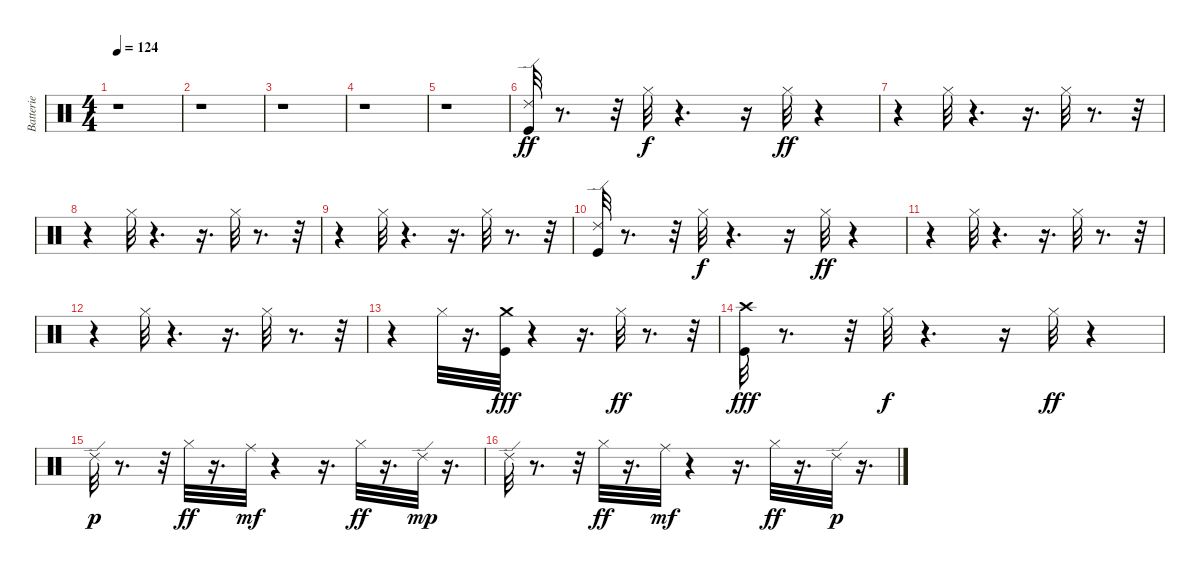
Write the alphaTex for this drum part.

\track ("Batterie" "Batterie") {instrument percussion}
\staff {score}
\articulation defaults
\ts (4 4)
\tempo 124
\clef neutral
\ks c
r.1{dy ff} |
r.1 |
r.1 |
r.1 |
r.1 |
("Ride (edge) 2" "Kick (hit)").32 r.8{d} r.32 "Hi-Hat (closed)".32{dy f} r.4{d} r.16 "Hi-Hat (closed)".32{dy ff} r.4 |
r.4 "Hi-Hat (closed)".32 r.4{d} r.16{d} "Hi-Hat (closed)".32 r.8{d} r.32 |
r.4 "Hi-Hat (closed)".32 r.4{d} r.16{d} "Hi-Hat (closed)".32 r.8{d} r.32 |
r.4 "Hi-Hat (closed)".32 r.4{d} r.16{d} "Hi-Hat (closed)".32 r.8{d} r.32 |
("Ride (edge) 2" "Kick (hit)").32 r.8{d} r.32 "Hi-Hat (closed)".32{dy f} r.4{d} r.16 "Hi-Hat (closed)".32{dy ff} r.4 |
r.4 "Hi-Hat (closed)".32 r.4{d} r.16{d} "Hi-Hat (closed)".32 r.8{d} r.32 |
r.4 "Hi-Hat (closed)".32 r.4{d} r.16{d} "Hi-Hat (closed)".32 r.8{d} r.32 |
r.4 "Hi-Hat (closed)".32 r.16{d} ("Crash medium (hit)" "Kick (hit)").32{dy fff} r.4 r.16{d} "Hi-Hat (closed)".32{dy ff} r.8{d} r.32 |
("Kick (hit)" "Crash high (hit)").32{dy fff} r.8{d} r.32 "Hi-Hat (closed)".32{dy f} r.4{d} r.16 "Hi-Hat (closed)".32{dy ff} r.4 |
"Ride (edge) 2".32{dy p} r.8{d} r.32 "Hi-Hat (closed)".32{dy ff} r.16{d} "Ride (middle)".32{dy mf} r.4 r.16{d} "Hi-Hat (closed)".32{dy ff} r.16{d} "Ride (edge) 2".32{dy mp} r.16{d} |
"Ride (edge) 2".32 r.8{d} r.32 "Hi-Hat (closed)".32{dy ff} r.16{d} "Ride (middle)".32{dy mf} r.4 r.16{d} "Hi-Hat (closed)".32{dy ff} r.16{d} "Ride (edge) 2".32{dy p} r.16{d}
